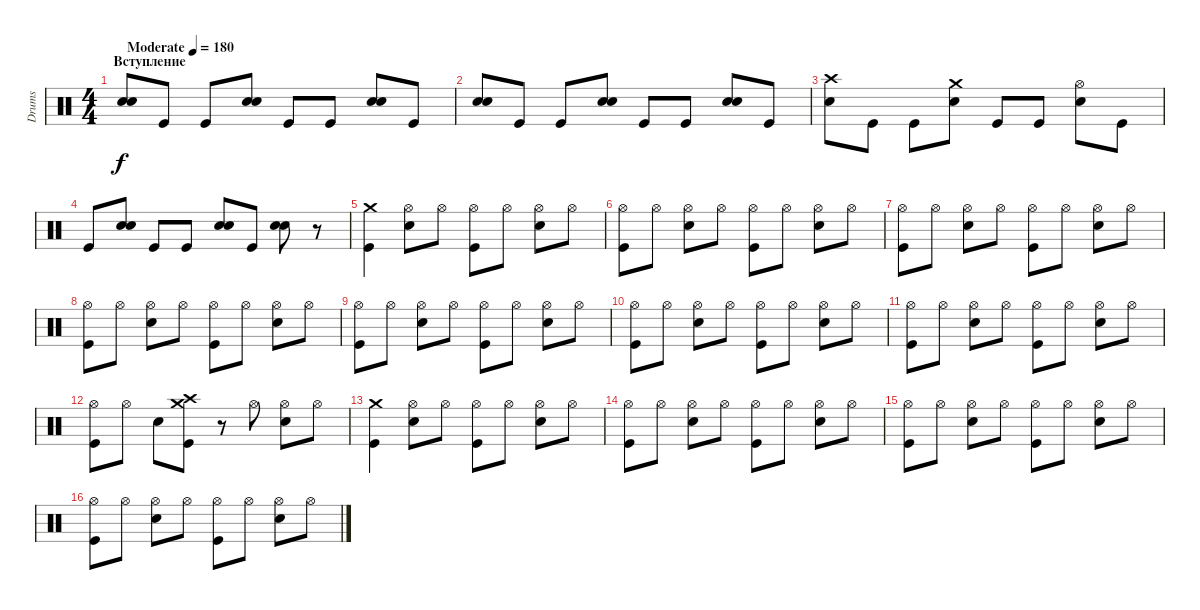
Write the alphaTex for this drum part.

\track ("Drums" "Drums") {instrument percussion}
\staff {score}
\articulation defaults
\ts (4 4)
\section ("" "Вступление")
\tempo (180 "Moderate")
\clef neutral
\ks c
("Snare (hit) 2" "Snare (hit) 2").8{bd 60 dy f} "Kick (hit)".8 "Kick (hit)".8 ("Snare (hit) 2" "Snare (hit) 2").8{bd 60} "Kick (hit)".8 "Kick (hit)".8 ("Snare (hit) 2" "Snare (hit) 2").8{bd 60} "Kick (hit)".8 |
("Snare (hit) 2" "Snare (hit) 2").8{bd 60} "Kick (hit)".8 "Kick (hit)".8 ("Snare (hit) 2" "Snare (hit) 2").8{bd 60} "Kick (hit)".8 "Kick (hit)".8 ("Snare (hit) 2" "Snare (hit) 2").8{bd 60} "Kick (hit)".8 |
("Snare (hit) 2" "Crash high (hit)").8 "Kick (hit)".8 "Kick (hit)".8 ("Snare (hit) 2" "Crash medium (hit)").8 "Kick (hit)".8 "Kick (hit)".8 ("Snare (hit) 2" "Hi-Hat (open)").8 "Kick (hit)".8 |
"Kick (hit)".8 ("Snare (hit) 2" "Snare (hit) 2").8{bd 120} "Kick (hit)".8 "Kick (hit)".8 ("Snare (hit) 2" "Snare (hit) 2").8{bd 120} "Kick (hit)".8 ("Snare (hit) 2" "Snare (hit) 2").8{bd 120} r.8 |
("Kick (hit)" "Crash medium (hit)").4 ("Snare (hit) 2" "Hi-Hat (open)").8 "Hi-Hat (open)".8 ("Kick (hit)" "Hi-Hat (open)").8 "Hi-Hat (open)".8 ("Snare (hit) 2" "Hi-Hat (open)").8 "Hi-Hat (open)".8 |
("Kick (hit)" "Hi-Hat (open)").8 "Hi-Hat (open)".8 ("Snare (hit) 2" "Hi-Hat (open)").8 "Hi-Hat (open)".8 ("Kick (hit)" "Hi-Hat (open)").8 "Hi-Hat (open)".8 ("Snare (hit) 2" "Hi-Hat (open)").8 "Hi-Hat (open)".8 |
("Kick (hit)" "Hi-Hat (open)").8 "Hi-Hat (open)".8 ("Snare (hit) 2" "Hi-Hat (open)").8 "Hi-Hat (open)".8 ("Kick (hit)" "Hi-Hat (open)").8 "Hi-Hat (open)".8 ("Snare (hit) 2" "Hi-Hat (open)").8 "Hi-Hat (open)".8 |
("Kick (hit)" "Hi-Hat (open)").8 "Hi-Hat (open)".8 ("Snare (hit) 2" "Hi-Hat (open)").8 "Hi-Hat (open)".8 ("Kick (hit)" "Hi-Hat (open)").8 "Hi-Hat (open)".8 ("Snare (hit) 2" "Hi-Hat (open)").8 "Hi-Hat (open)".8 |
("Kick (hit)" "Hi-Hat (open)").8 "Hi-Hat (open)".8 ("Snare (hit) 2" "Hi-Hat (open)").8 "Hi-Hat (open)".8 ("Kick (hit)" "Hi-Hat (open)").8 "Hi-Hat (open)".8 ("Snare (hit) 2" "Hi-Hat (open)").8 "Hi-Hat (open)".8 |
("Kick (hit)" "Hi-Hat (open)").8 "Hi-Hat (open)".8 ("Snare (hit) 2" "Hi-Hat (open)").8 "Hi-Hat (open)".8 ("Kick (hit)" "Hi-Hat (open)").8 "Hi-Hat (open)".8 ("Snare (hit) 2" "Hi-Hat (open)").8 "Hi-Hat (open)".8 |
("Kick (hit)" "Hi-Hat (open)").8 "Hi-Hat (open)".8 ("Snare (hit) 2" "Hi-Hat (open)").8 "Hi-Hat (open)".8 ("Kick (hit)" "Hi-Hat (open)").8 "Hi-Hat (open)".8 ("Snare (hit) 2" "Hi-Hat (open)").8 "Hi-Hat (open)".8 |
("Kick (hit)" "Hi-Hat (open)").8 "Hi-Hat (open)".8 "Snare (hit) 2".8 ("Kick (hit)" "Crash medium (hit)" "Crash high (hit)").8 r.8 "Hi-Hat (open)".8 ("Snare (hit) 2" "Hi-Hat (open)").8 "Hi-Hat (open)".8 |
("Kick (hit)" "Crash medium (hit)").4 ("Snare (hit) 2" "Hi-Hat (open)").8 "Hi-Hat (open)".8 ("Kick (hit)" "Hi-Hat (open)").8 "Hi-Hat (open)".8 ("Snare (hit) 2" "Hi-Hat (open)").8 "Hi-Hat (open)".8 |
("Kick (hit)" "Hi-Hat (open)").8 "Hi-Hat (open)".8 ("Snare (hit) 2" "Hi-Hat (open)").8 "Hi-Hat (open)".8 ("Kick (hit)" "Hi-Hat (open)").8 "Hi-Hat (open)".8 ("Snare (hit) 2" "Hi-Hat (open)").8 "Hi-Hat (open)".8 |
("Kick (hit)" "Hi-Hat (open)").8 "Hi-Hat (open)".8 ("Snare (hit) 2" "Hi-Hat (open)").8 "Hi-Hat (open)".8 ("Kick (hit)" "Hi-Hat (open)").8 "Hi-Hat (open)".8 ("Snare (hit) 2" "Hi-Hat (open)").8 "Hi-Hat (open)".8 |
("Kick (hit)" "Hi-Hat (open)").8 "Hi-Hat (open)".8 ("Snare (hit) 2" "Hi-Hat (open)").8 "Hi-Hat (open)".8 ("Kick (hit)" "Hi-Hat (open)").8 "Hi-Hat (open)".8 ("Snare (hit) 2" "Hi-Hat (open)").8 "Hi-Hat (open)".8
